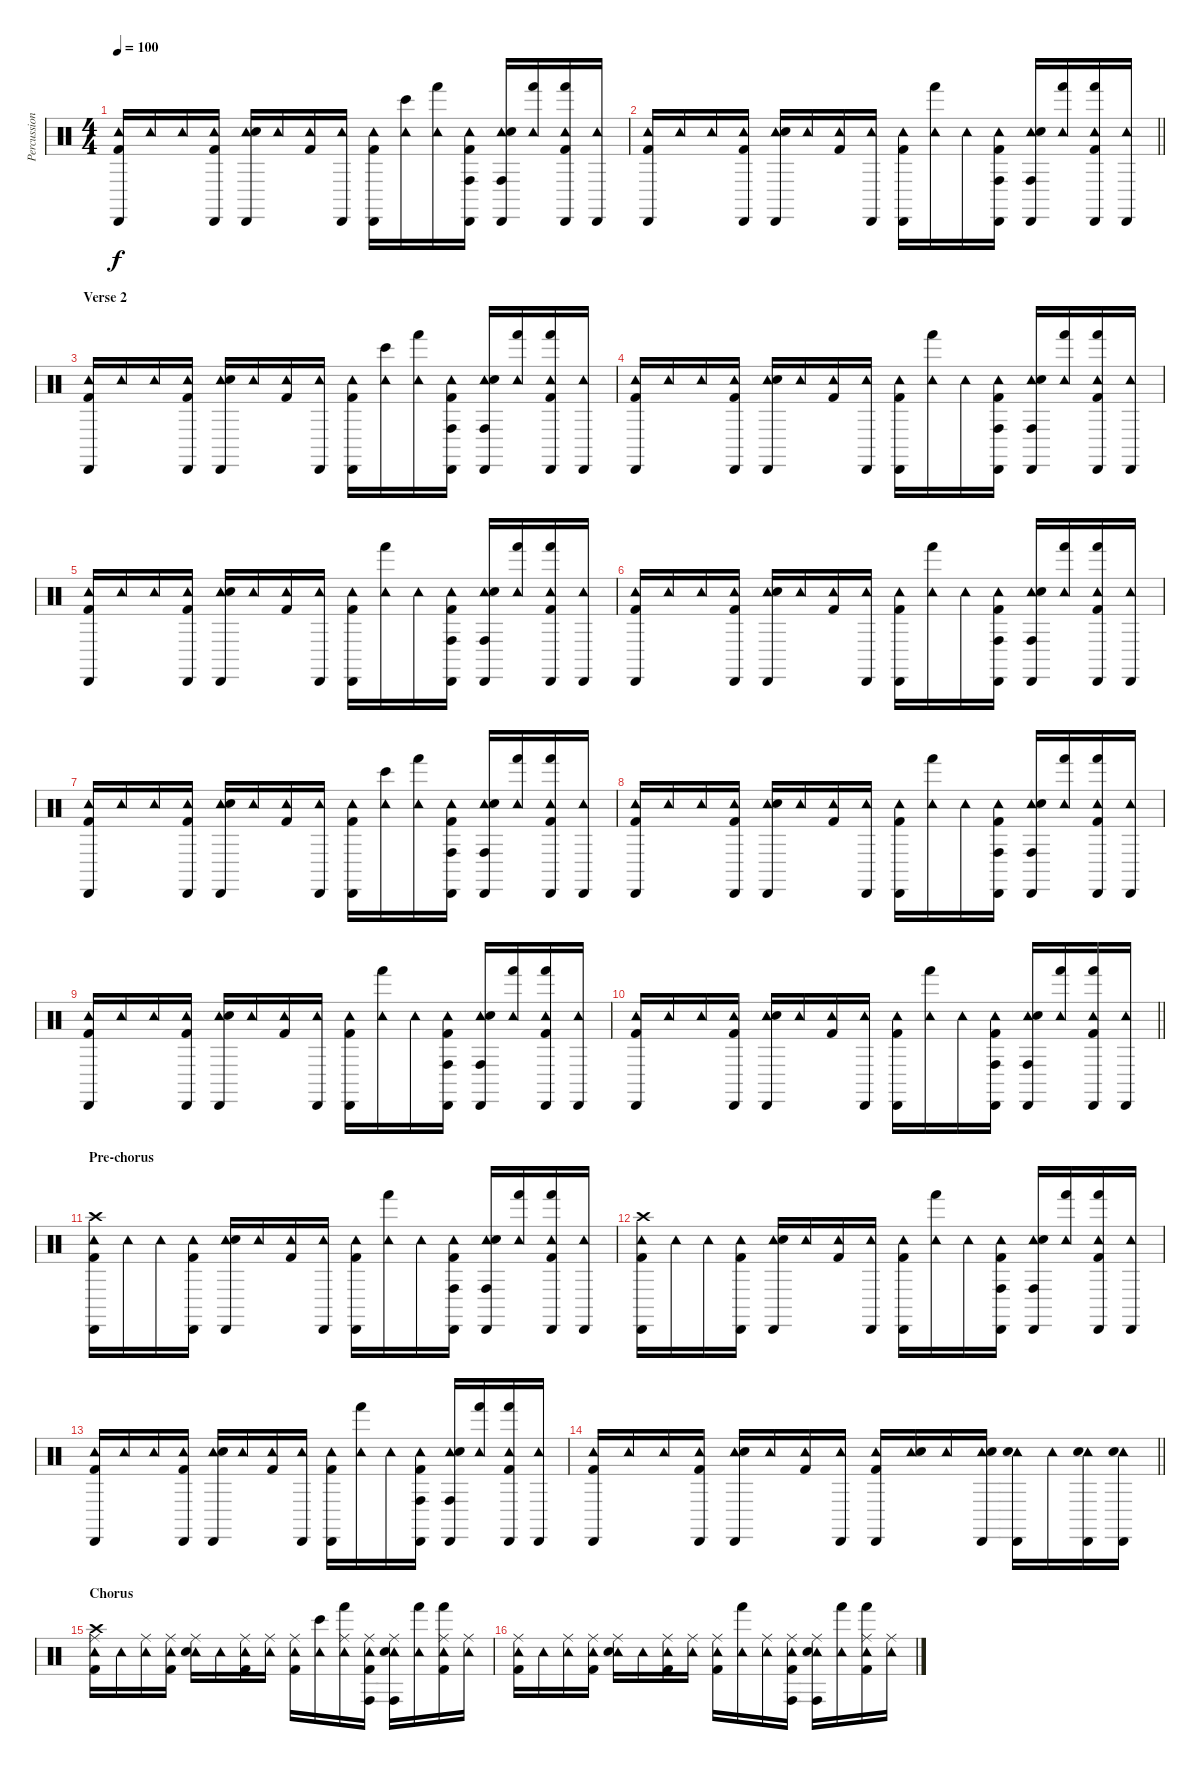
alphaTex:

\track ("Percussion" "Percussion") {instrument percussion}
\staff {score}
\articulation defaults
\ts (4 4)
\tempo 100
\clef neutral
\ks c
("Tambourine (hit)" "Cabasa (hit)" "Kick (hit) 2").16{dy f} "Tambourine (hit)".16 "Tambourine (hit)".16 ("Tambourine (hit)" "Cabasa (hit)" "Kick (hit) 2").16 ("Tambourine (hit)" "Cabasa (hit)" "Snare (hit) 2").16 "Tambourine (hit)".16 ("Tambourine (hit)" "Kick (hit) 2").16 ("Tambourine (hit)" "Cabasa (hit)").16 ("Tambourine (hit)" "Cabasa (hit)" "Kick (hit) 2").16 ("Tambourine (hit)" "Bongo High (hit)").16 ("Tambourine (hit)" "Hand (hit)").16 ("Tambourine (hit)" "Cabasa (hit)" "Conga high (hit)" "Kick (hit) 2").16 ("Tambourine (hit)" "Cabasa (hit)" "Conga high (hit)" "Snare (hit) 2").16 ("Tambourine (hit)" "Hand (hit)").16 ("Tambourine (hit)" "Cabasa (hit)" "Hand (hit)" "Kick (hit) 2").16 ("Tambourine (hit)" "Cabasa (hit)").16 |
\barLineRight lightlight
("Tambourine (hit)" "Cabasa (hit)" "Kick (hit) 2").16 "Tambourine (hit)".16 "Tambourine (hit)".16 ("Tambourine (hit)" "Cabasa (hit)" "Kick (hit) 2").16 ("Tambourine (hit)" "Cabasa (hit)" "Snare (hit) 2").16 "Tambourine (hit)".16 ("Tambourine (hit)" "Kick (hit) 2").16 ("Tambourine (hit)" "Cabasa (hit)").16 ("Tambourine (hit)" "Cabasa (hit)" "Kick (hit) 2").16 ("Tambourine (hit)" "Hand (hit)").16 "Tambourine (hit)".16 ("Tambourine (hit)" "Cabasa (hit)" "Conga high (hit)" "Kick (hit) 2").16 ("Tambourine (hit)" "Cabasa (hit)" "Conga high (hit)" "Snare (hit) 2").16 ("Tambourine (hit)" "Hand (hit)").16 ("Tambourine (hit)" "Cabasa (hit)" "Hand (hit)" "Kick (hit) 2").16 ("Tambourine (hit)" "Cabasa (hit)").16 |
\section ("" "Verse 2")
("Tambourine (hit)" "Cabasa (hit)" "Kick (hit) 2").16 "Tambourine (hit)".16 "Tambourine (hit)".16 ("Tambourine (hit)" "Cabasa (hit)" "Kick (hit) 2").16 ("Tambourine (hit)" "Cabasa (hit)" "Snare (hit) 2").16 "Tambourine (hit)".16 ("Tambourine (hit)" "Kick (hit) 2").16 ("Tambourine (hit)" "Cabasa (hit)").16 ("Tambourine (hit)" "Cabasa (hit)" "Kick (hit) 2").16 ("Tambourine (hit)" "Bongo High (hit)").16 ("Tambourine (hit)" "Hand (hit)").16 ("Tambourine (hit)" "Cabasa (hit)" "Conga high (hit)" "Kick (hit) 2").16 ("Tambourine (hit)" "Cabasa (hit)" "Conga high (hit)" "Snare (hit) 2").16 ("Tambourine (hit)" "Hand (hit)").16 ("Tambourine (hit)" "Cabasa (hit)" "Hand (hit)" "Kick (hit) 2").16 ("Tambourine (hit)" "Cabasa (hit)").16 |
("Tambourine (hit)" "Cabasa (hit)" "Kick (hit) 2").16 "Tambourine (hit)".16 "Tambourine (hit)".16 ("Tambourine (hit)" "Cabasa (hit)" "Kick (hit) 2").16 ("Tambourine (hit)" "Cabasa (hit)" "Snare (hit) 2").16 "Tambourine (hit)".16 ("Tambourine (hit)" "Kick (hit) 2").16 ("Tambourine (hit)" "Cabasa (hit)").16 ("Tambourine (hit)" "Cabasa (hit)" "Kick (hit) 2").16 ("Tambourine (hit)" "Hand (hit)").16 "Tambourine (hit)".16 ("Tambourine (hit)" "Cabasa (hit)" "Conga high (hit)" "Kick (hit) 2").16 ("Tambourine (hit)" "Cabasa (hit)" "Conga high (hit)" "Snare (hit) 2").16 ("Tambourine (hit)" "Hand (hit)").16 ("Tambourine (hit)" "Cabasa (hit)" "Hand (hit)" "Kick (hit) 2").16 ("Tambourine (hit)" "Cabasa (hit)").16 |
("Tambourine (hit)" "Cabasa (hit)" "Kick (hit) 2").16 "Tambourine (hit)".16 "Tambourine (hit)".16 ("Tambourine (hit)" "Cabasa (hit)" "Kick (hit) 2").16 ("Tambourine (hit)" "Cabasa (hit)" "Snare (hit) 2").16 "Tambourine (hit)".16 ("Tambourine (hit)" "Kick (hit) 2").16 ("Tambourine (hit)" "Cabasa (hit)").16 ("Tambourine (hit)" "Cabasa (hit)" "Kick (hit) 2").16 ("Tambourine (hit)" "Hand (hit)").16 "Tambourine (hit)".16 ("Tambourine (hit)" "Cabasa (hit)" "Conga high (hit)" "Kick (hit) 2").16 ("Tambourine (hit)" "Cabasa (hit)" "Conga high (hit)" "Snare (hit) 2").16 ("Tambourine (hit)" "Hand (hit)").16 ("Tambourine (hit)" "Cabasa (hit)" "Hand (hit)" "Kick (hit) 2").16 ("Tambourine (hit)" "Cabasa (hit)").16 |
("Tambourine (hit)" "Cabasa (hit)" "Kick (hit) 2").16 "Tambourine (hit)".16 "Tambourine (hit)".16 ("Tambourine (hit)" "Cabasa (hit)" "Kick (hit) 2").16 ("Tambourine (hit)" "Cabasa (hit)" "Snare (hit) 2").16 "Tambourine (hit)".16 ("Tambourine (hit)" "Kick (hit) 2").16 ("Tambourine (hit)" "Cabasa (hit)").16 ("Tambourine (hit)" "Cabasa (hit)" "Kick (hit) 2").16 ("Tambourine (hit)" "Hand (hit)").16 "Tambourine (hit)".16 ("Tambourine (hit)" "Cabasa (hit)" "Conga high (hit)" "Kick (hit) 2").16 ("Tambourine (hit)" "Cabasa (hit)" "Conga high (hit)" "Snare (hit) 2").16 ("Tambourine (hit)" "Hand (hit)").16 ("Tambourine (hit)" "Cabasa (hit)" "Hand (hit)" "Kick (hit) 2").16 ("Tambourine (hit)" "Cabasa (hit)").16 |
("Tambourine (hit)" "Cabasa (hit)" "Kick (hit) 2").16 "Tambourine (hit)".16 "Tambourine (hit)".16 ("Tambourine (hit)" "Cabasa (hit)" "Kick (hit) 2").16 ("Tambourine (hit)" "Cabasa (hit)" "Snare (hit) 2").16 "Tambourine (hit)".16 ("Tambourine (hit)" "Kick (hit) 2").16 ("Tambourine (hit)" "Cabasa (hit)").16 ("Tambourine (hit)" "Cabasa (hit)" "Kick (hit) 2").16 ("Tambourine (hit)" "Bongo High (hit)").16 ("Tambourine (hit)" "Hand (hit)").16 ("Tambourine (hit)" "Cabasa (hit)" "Conga high (hit)" "Kick (hit) 2").16 ("Tambourine (hit)" "Cabasa (hit)" "Conga high (hit)" "Snare (hit) 2").16 ("Tambourine (hit)" "Hand (hit)").16 ("Tambourine (hit)" "Cabasa (hit)" "Hand (hit)" "Kick (hit) 2").16 ("Tambourine (hit)" "Cabasa (hit)").16 |
("Tambourine (hit)" "Cabasa (hit)" "Kick (hit) 2").16 "Tambourine (hit)".16 "Tambourine (hit)".16 ("Tambourine (hit)" "Cabasa (hit)" "Kick (hit) 2").16 ("Tambourine (hit)" "Cabasa (hit)" "Snare (hit) 2").16 "Tambourine (hit)".16 ("Tambourine (hit)" "Kick (hit) 2").16 ("Tambourine (hit)" "Cabasa (hit)").16 ("Tambourine (hit)" "Cabasa (hit)" "Kick (hit) 2").16 ("Tambourine (hit)" "Hand (hit)").16 "Tambourine (hit)".16 ("Tambourine (hit)" "Cabasa (hit)" "Conga high (hit)" "Kick (hit) 2").16 ("Tambourine (hit)" "Cabasa (hit)" "Conga high (hit)" "Snare (hit) 2").16 ("Tambourine (hit)" "Hand (hit)").16 ("Tambourine (hit)" "Cabasa (hit)" "Hand (hit)" "Kick (hit) 2").16 ("Tambourine (hit)" "Cabasa (hit)").16 |
("Tambourine (hit)" "Cabasa (hit)" "Kick (hit) 2").16 "Tambourine (hit)".16 "Tambourine (hit)".16 ("Tambourine (hit)" "Cabasa (hit)" "Kick (hit) 2").16 ("Tambourine (hit)" "Cabasa (hit)" "Snare (hit) 2").16 "Tambourine (hit)".16 ("Tambourine (hit)" "Kick (hit) 2").16 ("Tambourine (hit)" "Cabasa (hit)").16 ("Tambourine (hit)" "Cabasa (hit)" "Kick (hit) 2").16 ("Tambourine (hit)" "Hand (hit)").16 "Tambourine (hit)".16 ("Tambourine (hit)" "Cabasa (hit)" "Conga high (hit)" "Kick (hit) 2").16 ("Tambourine (hit)" "Cabasa (hit)" "Conga high (hit)" "Snare (hit) 2").16 ("Tambourine (hit)" "Hand (hit)").16 ("Tambourine (hit)" "Cabasa (hit)" "Hand (hit)" "Kick (hit) 2").16 ("Tambourine (hit)" "Cabasa (hit)").16 |
\barLineRight lightlight
("Tambourine (hit)" "Cabasa (hit)" "Kick (hit) 2").16 "Tambourine (hit)".16 "Tambourine (hit)".16 ("Tambourine (hit)" "Cabasa (hit)" "Kick (hit) 2").16 ("Tambourine (hit)" "Cabasa (hit)" "Snare (hit) 2").16 "Tambourine (hit)".16 ("Tambourine (hit)" "Kick (hit) 2").16 ("Tambourine (hit)" "Cabasa (hit)").16 ("Tambourine (hit)" "Cabasa (hit)" "Kick (hit) 2").16 ("Tambourine (hit)" "Hand (hit)").16 "Tambourine (hit)".16 ("Tambourine (hit)" "Cabasa (hit)" "Conga high (hit)" "Kick (hit) 2").16 ("Tambourine (hit)" "Cabasa (hit)" "Conga high (hit)" "Snare (hit) 2").16 ("Tambourine (hit)" "Hand (hit)").16 ("Tambourine (hit)" "Cabasa (hit)" "Hand (hit)" "Kick (hit) 2").16 ("Tambourine (hit)" "Cabasa (hit)").16 |
\section ("" "Pre-chorus")
("Tambourine (hit)" "Cabasa (hit)" "Crash high (hit)" "Kick (hit) 2").16 "Tambourine (hit)".16 "Tambourine (hit)".16 ("Tambourine (hit)" "Cabasa (hit)" "Kick (hit) 2").16 ("Tambourine (hit)" "Cabasa (hit)" "Snare (hit) 2").16 "Tambourine (hit)".16 ("Tambourine (hit)" "Kick (hit) 2").16 ("Tambourine (hit)" "Cabasa (hit)").16 ("Tambourine (hit)" "Cabasa (hit)" "Kick (hit) 2").16 ("Tambourine (hit)" "Hand (hit)").16 "Tambourine (hit)".16 ("Tambourine (hit)" "Cabasa (hit)" "Conga high (hit)" "Kick (hit) 2").16 ("Tambourine (hit)" "Cabasa (hit)" "Conga high (hit)" "Snare (hit) 2").16 ("Tambourine (hit)" "Hand (hit)").16 ("Tambourine (hit)" "Cabasa (hit)" "Hand (hit)" "Kick (hit) 2").16 ("Tambourine (hit)" "Cabasa (hit)").16 |
("Tambourine (hit)" "Cabasa (hit)" "Crash high (hit)" "Kick (hit) 2").16 "Tambourine (hit)".16 "Tambourine (hit)".16 ("Tambourine (hit)" "Cabasa (hit)" "Kick (hit) 2").16 ("Tambourine (hit)" "Cabasa (hit)" "Snare (hit) 2").16 "Tambourine (hit)".16 ("Tambourine (hit)" "Kick (hit) 2").16 ("Tambourine (hit)" "Cabasa (hit)").16 ("Tambourine (hit)" "Cabasa (hit)" "Kick (hit) 2").16 ("Tambourine (hit)" "Hand (hit)").16 "Tambourine (hit)".16 ("Tambourine (hit)" "Cabasa (hit)" "Conga high (hit)" "Kick (hit) 2").16 ("Tambourine (hit)" "Cabasa (hit)" "Conga high (hit)" "Snare (hit) 2").16 ("Tambourine (hit)" "Hand (hit)").16 ("Tambourine (hit)" "Cabasa (hit)" "Hand (hit)" "Kick (hit) 2").16 ("Tambourine (hit)" "Cabasa (hit)").16 |
("Tambourine (hit)" "Cabasa (hit)" "Kick (hit) 2").16 "Tambourine (hit)".16 "Tambourine (hit)".16 ("Tambourine (hit)" "Cabasa (hit)" "Kick (hit) 2").16 ("Tambourine (hit)" "Cabasa (hit)" "Snare (hit) 2").16 "Tambourine (hit)".16 ("Tambourine (hit)" "Kick (hit) 2").16 ("Tambourine (hit)" "Cabasa (hit)").16 ("Tambourine (hit)" "Cabasa (hit)" "Kick (hit) 2").16 ("Tambourine (hit)" "Hand (hit)").16 "Tambourine (hit)".16 ("Tambourine (hit)" "Cabasa (hit)" "Conga high (hit)" "Kick (hit) 2").16 ("Tambourine (hit)" "Cabasa (hit)" "Conga high (hit)" "Snare (hit) 2").16 ("Tambourine (hit)" "Hand (hit)").16 ("Tambourine (hit)" "Cabasa (hit)" "Hand (hit)" "Kick (hit) 2").16 ("Tambourine (hit)" "Cabasa (hit)").16 |
\barLineRight lightlight
("Tambourine (hit)" "Cabasa (hit)" "Kick (hit) 2").16 "Tambourine (hit)".16 "Tambourine (hit)".16 ("Tambourine (hit)" "Cabasa (hit)" "Kick (hit) 2").16 ("Tambourine (hit)" "Cabasa (hit)" "Snare (hit) 2").16 "Tambourine (hit)".16 ("Tambourine (hit)" "Kick (hit) 2").16 ("Tambourine (hit)" "Cabasa (hit)").16 ("Tambourine (hit)" "Cabasa (hit)" "Kick (hit) 2").16 ("Tambourine (hit)" "Snare (hit) 2").16 "Tambourine (hit)".16 ("Tambourine (hit)" "Cabasa (hit)" "Snare (hit) 2").16 ("Tambourine (hit)" "Cabasa (hit)" "Snare (hit) 2").16 "Tambourine (hit)".16 ("Tambourine (hit)" "Cabasa (hit)" "Snare (hit) 2").16 ("Tambourine (hit)" "Cabasa (hit)" "Snare (hit) 2").16 |
\section ("" "Chorus")
("Tambourine (hit)" "Ride (middle)" "Crash high (hit)" "Kick (hit) 2").16 "Tambourine (hit)".16 ("Tambourine (hit)" "Ride (middle)").16 ("Tambourine (hit)" "Ride (middle)" "Kick (hit) 2").16 ("Tambourine (hit)" "Ride (middle)" "Snare (hit) 2").16 "Tambourine (hit)".16 ("Tambourine (hit)" "Ride (middle)" "Kick (hit) 2").16 ("Tambourine (hit)" "Ride (middle)").16 ("Tambourine (hit)" "Ride (middle)" "Kick (hit) 2").16 ("Tambourine (hit)" "Bongo High (hit)").16 ("Tambourine (hit)" "Ride (middle)" "Hand (hit)").16 ("Tambourine (hit)" "Ride (middle)" "Conga high (hit)" "Kick (hit) 2").16 ("Tambourine (hit)" "Ride (middle)" "Conga high (hit)" "Snare (hit) 2").16 ("Tambourine (hit)" "Hand (hit)").16 ("Tambourine (hit)" "Ride (middle)" "Hand (hit)" "Kick (hit) 2").16 ("Tambourine (hit)" "Ride (middle)").16 |
("Tambourine (hit)" "Ride (middle)" "Kick (hit) 2").16 "Tambourine (hit)".16 ("Tambourine (hit)" "Ride (middle)").16 ("Tambourine (hit)" "Ride (middle)" "Kick (hit) 2").16 ("Tambourine (hit)" "Ride (middle)" "Snare (hit) 2").16 "Tambourine (hit)".16 ("Tambourine (hit)" "Ride (middle)" "Kick (hit) 2").16 ("Tambourine (hit)" "Ride (middle)").16 ("Tambourine (hit)" "Ride (middle)" "Kick (hit) 2").16 ("Tambourine (hit)" "Hand (hit)").16 ("Tambourine (hit)" "Ride (middle)").16 ("Tambourine (hit)" "Ride (middle)" "Conga high (hit)" "Kick (hit) 2").16 ("Tambourine (hit)" "Ride (middle)" "Conga high (hit)" "Snare (hit) 2").16 ("Tambourine (hit)" "Hand (hit)").16 ("Tambourine (hit)" "Ride (middle)" "Hand (hit)" "Kick (hit) 2").16 ("Tambourine (hit)" "Ride (middle)").16
